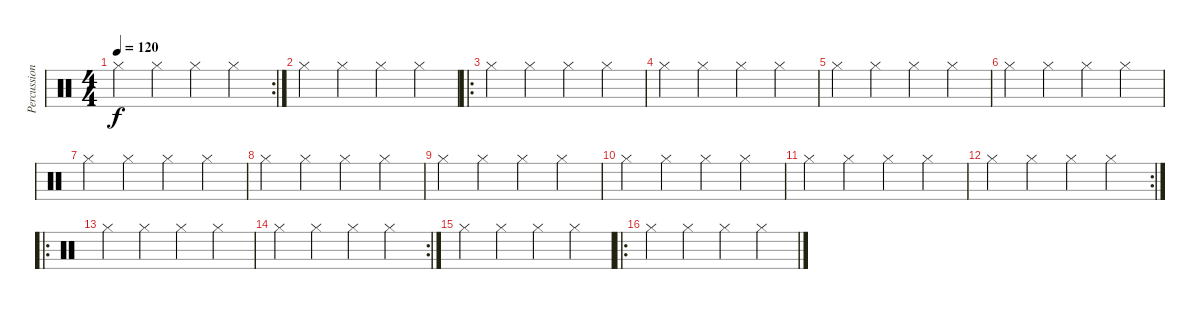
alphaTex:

\track ("Percussioni" "Percussion") {instrument percussion}
\staff {score}
\articulation defaults
\rc 2
\ts (4 4)
\tempo 120
\clef neutral
\ks c "Hi-Hat (closed)".4{dy f} "Hi-Hat (closed)".4 "Hi-Hat (closed)".4 "Hi-Hat (closed)".4
|
"Hi-Hat (closed)".4 "Hi-Hat (closed)".4 "Hi-Hat (closed)".4 "Hi-Hat (closed)".4 |
\ro "Hi-Hat (closed)".4 "Hi-Hat (closed)".4 "Hi-Hat (closed)".4 "Hi-Hat (closed)".4
|
"Hi-Hat (closed)".4 "Hi-Hat (closed)".4 "Hi-Hat (closed)".4 "Hi-Hat (closed)".4 |
"Hi-Hat (closed)".4 "Hi-Hat (closed)".4 "Hi-Hat (closed)".4 "Hi-Hat (closed)".4 |
"Hi-Hat (closed)".4 "Hi-Hat (closed)".4 "Hi-Hat (closed)".4 "Hi-Hat (closed)".4 |
"Hi-Hat (closed)".4 "Hi-Hat (closed)".4 "Hi-Hat (closed)".4 "Hi-Hat (closed)".4 |
"Hi-Hat (closed)".4 "Hi-Hat (closed)".4 "Hi-Hat (closed)".4 "Hi-Hat (closed)".4 |
"Hi-Hat (closed)".4 "Hi-Hat (closed)".4 "Hi-Hat (closed)".4 "Hi-Hat (closed)".4 |
"Hi-Hat (closed)".4 "Hi-Hat (closed)".4 "Hi-Hat (closed)".4 "Hi-Hat (closed)".4 |
"Hi-Hat (closed)".4 "Hi-Hat (closed)".4 "Hi-Hat (closed)".4 "Hi-Hat (closed)".4 |
\rc 2 "Hi-Hat (closed)".4 "Hi-Hat (closed)".4 "Hi-Hat (closed)".4 "Hi-Hat (closed)".4
|
\ro "Hi-Hat (closed)".4 "Hi-Hat (closed)".4 "Hi-Hat (closed)".4 "Hi-Hat (closed)".4
|
\rc 2 "Hi-Hat (closed)".4 "Hi-Hat (closed)".4 "Hi-Hat (closed)".4 "Hi-Hat (closed)".4
|
"Hi-Hat (closed)".4 "Hi-Hat (closed)".4 "Hi-Hat (closed)".4 "Hi-Hat (closed)".4 |
\ro "Hi-Hat (closed)".4 "Hi-Hat (closed)".4 "Hi-Hat (closed)".4 "Hi-Hat (closed)".4
